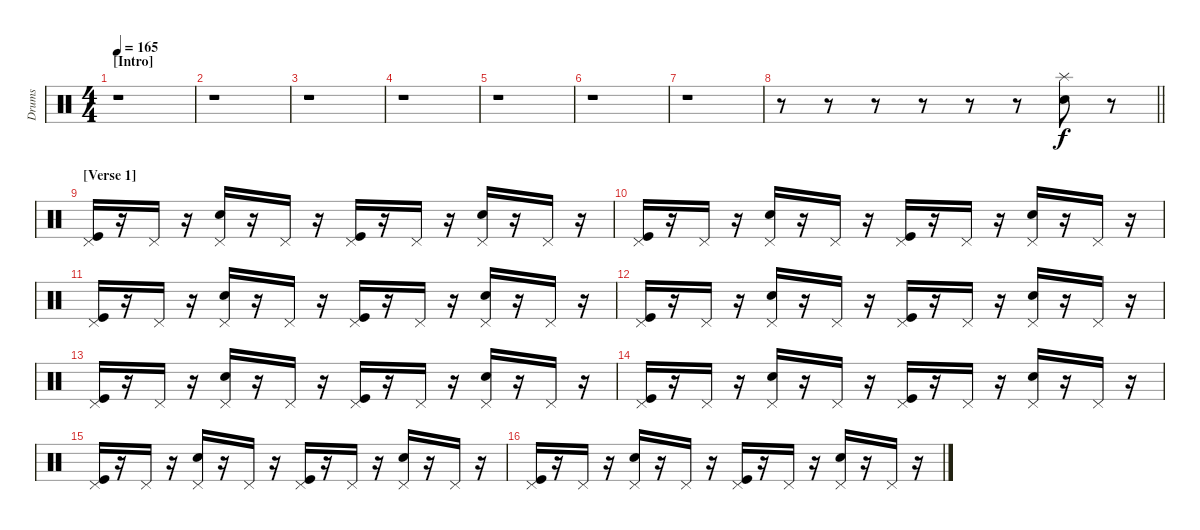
\track ("Drums" "Drums") {instrument percussion}
\staff {score}
\articulation defaults
\ts (4 4)
\section ("" "[Intro]")
\tempo 165
\clef neutral
\ks c
r.1{dy f} |
r.1 |
r.1 |
r.1 |
r.1 |
r.1 |
r.1 |
\barLineRight lightlight
r.8 r.8 r.8 r.8 r.8 r.8 ("Splash (hit)" "Snare (hit) 2").8 r.8 |
\section ("" "[Verse 1]")
("Pedal Hi-Hat (hit)" "Kick (hit)").16 r.16 "Pedal Hi-Hat (hit)".16 r.16 ("Pedal Hi-Hat (hit)" "Snare (hit) 2").16 r.16 "Pedal Hi-Hat (hit)".16 r.16 ("Pedal Hi-Hat (hit)" "Kick (hit)").16 r.16 "Pedal Hi-Hat (hit)".16 r.16 ("Pedal Hi-Hat (hit)" "Snare (hit) 2").16 r.16 "Pedal Hi-Hat (hit)".16 r.16 |
("Pedal Hi-Hat (hit)" "Kick (hit)").16 r.16 "Pedal Hi-Hat (hit)".16 r.16 ("Pedal Hi-Hat (hit)" "Snare (hit) 2").16 r.16 "Pedal Hi-Hat (hit)".16 r.16 ("Pedal Hi-Hat (hit)" "Kick (hit)").16 r.16 "Pedal Hi-Hat (hit)".16 r.16 ("Pedal Hi-Hat (hit)" "Snare (hit) 2").16 r.16 "Pedal Hi-Hat (hit)".16 r.16 |
("Pedal Hi-Hat (hit)" "Kick (hit)").16 r.16 "Pedal Hi-Hat (hit)".16 r.16 ("Pedal Hi-Hat (hit)" "Snare (hit) 2").16 r.16 "Pedal Hi-Hat (hit)".16 r.16 ("Pedal Hi-Hat (hit)" "Kick (hit)").16 r.16 "Pedal Hi-Hat (hit)".16 r.16 ("Pedal Hi-Hat (hit)" "Snare (hit) 2").16 r.16 "Pedal Hi-Hat (hit)".16 r.16 |
("Pedal Hi-Hat (hit)" "Kick (hit)").16 r.16 "Pedal Hi-Hat (hit)".16 r.16 ("Pedal Hi-Hat (hit)" "Snare (hit) 2").16 r.16 "Pedal Hi-Hat (hit)".16 r.16 ("Pedal Hi-Hat (hit)" "Kick (hit)").16 r.16 "Pedal Hi-Hat (hit)".16 r.16 ("Pedal Hi-Hat (hit)" "Snare (hit) 2").16 r.16 "Pedal Hi-Hat (hit)".16 r.16 |
("Pedal Hi-Hat (hit)" "Kick (hit)").16 r.16 "Pedal Hi-Hat (hit)".16 r.16 ("Pedal Hi-Hat (hit)" "Snare (hit) 2").16 r.16 "Pedal Hi-Hat (hit)".16 r.16 ("Pedal Hi-Hat (hit)" "Kick (hit)").16 r.16 "Pedal Hi-Hat (hit)".16 r.16 ("Pedal Hi-Hat (hit)" "Snare (hit) 2").16 r.16 "Pedal Hi-Hat (hit)".16 r.16 |
("Pedal Hi-Hat (hit)" "Kick (hit)").16 r.16 "Pedal Hi-Hat (hit)".16 r.16 ("Pedal Hi-Hat (hit)" "Snare (hit) 2").16 r.16 "Pedal Hi-Hat (hit)".16 r.16 ("Pedal Hi-Hat (hit)" "Kick (hit)").16 r.16 "Pedal Hi-Hat (hit)".16 r.16 ("Pedal Hi-Hat (hit)" "Snare (hit) 2").16 r.16 "Pedal Hi-Hat (hit)".16 r.16 |
("Pedal Hi-Hat (hit)" "Kick (hit)").16 r.16 "Pedal Hi-Hat (hit)".16 r.16 ("Pedal Hi-Hat (hit)" "Snare (hit) 2").16 r.16 "Pedal Hi-Hat (hit)".16 r.16 ("Pedal Hi-Hat (hit)" "Kick (hit)").16 r.16 "Pedal Hi-Hat (hit)".16 r.16 ("Pedal Hi-Hat (hit)" "Snare (hit) 2").16 r.16 "Pedal Hi-Hat (hit)".16 r.16 |
("Pedal Hi-Hat (hit)" "Kick (hit)").16 r.16 "Pedal Hi-Hat (hit)".16 r.16 ("Pedal Hi-Hat (hit)" "Snare (hit) 2").16 r.16 "Pedal Hi-Hat (hit)".16 r.16 ("Pedal Hi-Hat (hit)" "Kick (hit)").16 r.16 "Pedal Hi-Hat (hit)".16 r.16 ("Pedal Hi-Hat (hit)" "Snare (hit) 2").16 r.16 "Pedal Hi-Hat (hit)".16 r.16
